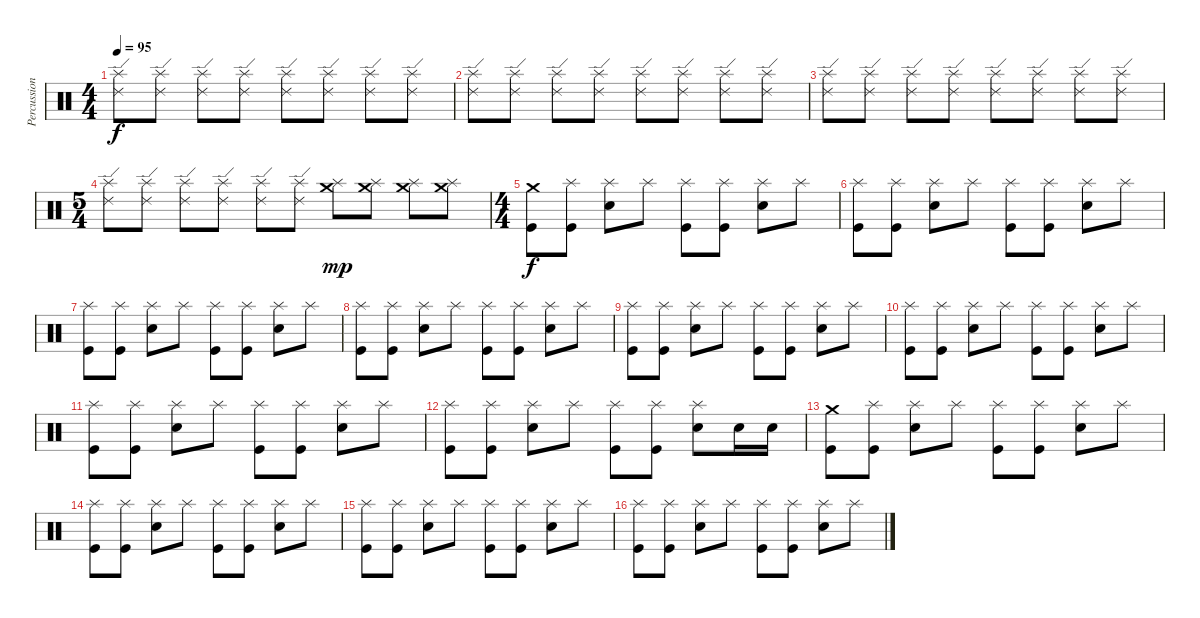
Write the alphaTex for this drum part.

\track ("Percussions" "Percussion") {instrument percussion}
\staff {score}
\articulation defaults
\ts (4 4)
\tempo 95
\clef neutral
\ks c
("Ride (edge) 2" "Splash (hit)").8{dy f} ("Ride (edge) 2" "Splash (hit)").8 ("Ride (edge) 2" "Splash (hit)").8 ("Ride (edge) 2" "Splash (hit)").8 ("Ride (edge) 2" "Splash (hit)").8 ("Ride (edge) 2" "Splash (hit)").8 ("Ride (edge) 2" "Splash (hit)").8 ("Ride (edge) 2" "Splash (hit)").8 |
("Ride (edge) 2" "Splash (hit)").8 ("Ride (edge) 2" "Splash (hit)").8 ("Ride (edge) 2" "Splash (hit)").8 ("Ride (edge) 2" "Splash (hit)").8 ("Ride (edge) 2" "Splash (hit)").8 ("Ride (edge) 2" "Splash (hit)").8 ("Ride (edge) 2" "Splash (hit)").8 ("Ride (edge) 2" "Splash (hit)").8 |
("Ride (edge) 2" "Splash (hit)").8 ("Ride (edge) 2" "Splash (hit)").8 ("Ride (edge) 2" "Splash (hit)").8 ("Ride (edge) 2" "Splash (hit)").8 ("Ride (edge) 2" "Splash (hit)").8 ("Ride (edge) 2" "Splash (hit)").8 ("Ride (edge) 2" "Splash (hit)").8 ("Ride (edge) 2" "Splash (hit)").8 |
\ts (5 4)
("Ride (edge) 2" "Splash (hit)").8{volume 13} ("Ride (edge) 2" "Splash (hit)").8 ("Ride (edge) 2" "Splash (hit)").8 ("Ride (edge) 2" "Splash (hit)").8 ("Ride (edge) 2" "Splash (hit)").8 ("Ride (edge) 2" "Splash (hit)").8 ("Splash (hit)" "Crash medium (hit)").8{dy mp} ("Splash (hit)" "Crash medium (hit)").8 ("Splash (hit)" "Crash medium (hit)").8 ("Splash (hit)" "Crash medium (hit)").8 |
\ts (4 4)
("Crash medium (hit)" "Kick (hit)").8{dy f} ("Splash (hit)" "Kick (hit)").8 ("Splash (hit)" "Electric Snare (hit)").8 "Splash (hit)".8 ("Splash (hit)" "Kick (hit)").8 ("Splash (hit)" "Kick (hit)").8 ("Splash (hit)" "Electric Snare (hit)").8 "Splash (hit)".8 |
("Splash (hit)" "Kick (hit)").8 ("Splash (hit)" "Kick (hit)").8 ("Splash (hit)" "Electric Snare (hit)").8 "Splash (hit)".8 ("Splash (hit)" "Kick (hit)").8 ("Splash (hit)" "Kick (hit)").8 ("Splash (hit)" "Electric Snare (hit)").8 "Splash (hit)".8 |
("Splash (hit)" "Kick (hit)").8 ("Splash (hit)" "Kick (hit)").8 ("Splash (hit)" "Electric Snare (hit)").8 "Splash (hit)".8 ("Splash (hit)" "Kick (hit)").8 ("Splash (hit)" "Kick (hit)").8 ("Splash (hit)" "Electric Snare (hit)").8 "Splash (hit)".8 |
("Splash (hit)" "Kick (hit)").8 ("Splash (hit)" "Kick (hit)").8 ("Splash (hit)" "Electric Snare (hit)").8 "Splash (hit)".8 ("Splash (hit)" "Kick (hit)").8 ("Splash (hit)" "Kick (hit)").8 ("Splash (hit)" "Electric Snare (hit)").8 "Splash (hit)".8 |
("Splash (hit)" "Kick (hit)").8 ("Splash (hit)" "Kick (hit)").8 ("Splash (hit)" "Electric Snare (hit)").8 "Splash (hit)".8 ("Splash (hit)" "Kick (hit)").8 ("Splash (hit)" "Kick (hit)").8 ("Splash (hit)" "Electric Snare (hit)").8 "Splash (hit)".8 |
("Splash (hit)" "Kick (hit)").8 ("Splash (hit)" "Kick (hit)").8 ("Splash (hit)" "Electric Snare (hit)").8 "Splash (hit)".8 ("Splash (hit)" "Kick (hit)").8 ("Splash (hit)" "Kick (hit)").8 ("Splash (hit)" "Electric Snare (hit)").8 "Splash (hit)".8 |
("Splash (hit)" "Kick (hit)").8 ("Splash (hit)" "Kick (hit)").8 ("Splash (hit)" "Electric Snare (hit)").8 "Splash (hit)".8 ("Splash (hit)" "Kick (hit)").8 ("Splash (hit)" "Kick (hit)").8 ("Splash (hit)" "Electric Snare (hit)").8 "Splash (hit)".8 |
("Splash (hit)" "Kick (hit)").8 ("Splash (hit)" "Kick (hit)").8 ("Splash (hit)" "Electric Snare (hit)").8 "Splash (hit)".8 ("Splash (hit)" "Kick (hit)").8 ("Splash (hit)" "Kick (hit)").8 ("Splash (hit)" "Electric Snare (hit)").8 "Snare (hit) 2".16 "Snare (hit) 2".16 |
("Crash medium (hit)" "Kick (hit)").8 ("Splash (hit)" "Kick (hit)").8 ("Splash (hit)" "Electric Snare (hit)").8 "Splash (hit)".8 ("Splash (hit)" "Kick (hit)").8 ("Splash (hit)" "Kick (hit)").8 ("Splash (hit)" "Electric Snare (hit)").8 "Splash (hit)".8 |
("Splash (hit)" "Kick (hit)").8 ("Splash (hit)" "Kick (hit)").8 ("Splash (hit)" "Electric Snare (hit)").8 "Splash (hit)".8 ("Splash (hit)" "Kick (hit)").8 ("Splash (hit)" "Kick (hit)").8 ("Splash (hit)" "Electric Snare (hit)").8 "Splash (hit)".8 |
("Splash (hit)" "Kick (hit)").8 ("Splash (hit)" "Kick (hit)").8 ("Splash (hit)" "Electric Snare (hit)").8 "Splash (hit)".8 ("Splash (hit)" "Kick (hit)").8 ("Splash (hit)" "Kick (hit)").8 ("Splash (hit)" "Electric Snare (hit)").8 "Splash (hit)".8 |
("Splash (hit)" "Kick (hit)").8 ("Splash (hit)" "Kick (hit)").8 ("Splash (hit)" "Electric Snare (hit)").8 "Splash (hit)".8 ("Splash (hit)" "Kick (hit)").8 ("Splash (hit)" "Kick (hit)").8 ("Splash (hit)" "Electric Snare (hit)").8 "Splash (hit)".8
